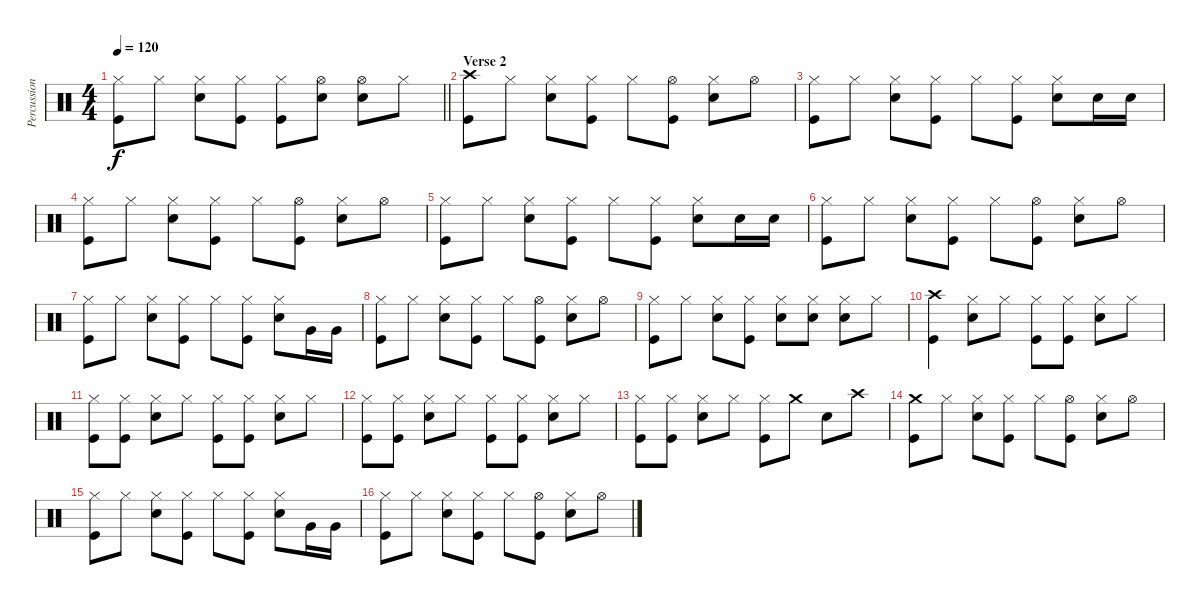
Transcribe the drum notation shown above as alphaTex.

\track ("Percussion" "Percussion") {instrument percussion}
\staff {score}
\articulation defaults
\ts (4 4)
\tempo 120
\clef neutral
\barLineRight lightlight
\ks c
("Kick (hit)" "Hi-Hat (closed)").8{dy f} "Hi-Hat (closed)".8 ("Hi-Hat (closed)" "Snare (hit) 2").8 ("Kick (hit)" "Hi-Hat (closed)").8 ("Kick (hit)" "Hi-Hat (closed)").8 ("Hi-Hat (open)" "Snare (hit) 2").8 ("Hi-Hat (open)" "Snare (hit) 2").8 "Hi-Hat (closed)".8 |
\section ("" "Verse 2")
("Kick (hit)" "Crash high (hit)").8 "Hi-Hat (closed)".8 ("Hi-Hat (closed)" "Snare (hit) 2").8 ("Kick (hit)" "Hi-Hat (closed)").8 "Hi-Hat (closed)".8 ("Kick (hit)" "Hi-Hat (open)").8 ("Hi-Hat (closed)" "Snare (hit) 2").8 "Hi-Hat (open)".8 |
("Kick (hit)" "Hi-Hat (closed)").8 "Hi-Hat (closed)".8 ("Hi-Hat (closed)" "Snare (hit) 2").8 ("Kick (hit)" "Hi-Hat (closed)").8 "Hi-Hat (closed)".8 ("Kick (hit)" "Hi-Hat (closed)").8 ("Hi-Hat (closed)" "Snare (hit) 2").8 "Snare (hit) 2".16 "Snare (hit) 2".16 |
("Kick (hit)" "Hi-Hat (closed)").8 "Hi-Hat (closed)".8 ("Hi-Hat (closed)" "Snare (hit) 2").8 ("Kick (hit)" "Hi-Hat (closed)").8 "Hi-Hat (closed)".8 ("Kick (hit)" "Hi-Hat (open)").8 ("Hi-Hat (closed)" "Snare (hit) 2").8 "Hi-Hat (open)".8 |
("Kick (hit)" "Hi-Hat (closed)").8 "Hi-Hat (closed)".8 ("Hi-Hat (closed)" "Snare (hit) 2").8 ("Kick (hit)" "Hi-Hat (closed)").8 "Hi-Hat (closed)".8 ("Kick (hit)" "Hi-Hat (closed)").8 ("Hi-Hat (closed)" "Snare (hit) 2").8 "Snare (hit) 2".16 "Snare (hit) 2".16 |
("Kick (hit)" "Hi-Hat (closed)").8 "Hi-Hat (closed)".8 ("Hi-Hat (closed)" "Snare (hit) 2").8 ("Kick (hit)" "Hi-Hat (closed)").8 "Hi-Hat (closed)".8 ("Kick (hit)" "Hi-Hat (open)").8 ("Hi-Hat (closed)" "Snare (hit) 2").8 "Hi-Hat (open)".8 |
("Kick (hit)" "Hi-Hat (closed)").8 "Hi-Hat (closed)".8 ("Hi-Hat (closed)" "Snare (hit) 2").8 ("Kick (hit)" "Hi-Hat (closed)").8 "Hi-Hat (closed)".8 ("Kick (hit)" "Hi-Hat (closed)").8 ("Hi-Hat (closed)" "Snare (hit) 2").8 "Very Low Tom (hit)".16 "Very Low Tom (hit)".16 |
("Kick (hit)" "Hi-Hat (closed)").8 "Hi-Hat (closed)".8 ("Hi-Hat (closed)" "Snare (hit) 2").8 ("Kick (hit)" "Hi-Hat (closed)").8 "Hi-Hat (closed)".8 ("Kick (hit)" "Hi-Hat (open)").8 ("Hi-Hat (closed)" "Snare (hit) 2").8 "Hi-Hat (open)".8 |
("Kick (hit)" "Hi-Hat (closed)").8 "Hi-Hat (closed)".8 ("Hi-Hat (closed)" "Snare (hit) 2").8 ("Kick (hit)" "Hi-Hat (closed)").8 ("Hi-Hat (closed)" "Snare (hit) 2").8 ("Hi-Hat (closed)" "Snare (hit) 2").8 ("Hi-Hat (closed)" "Snare (hit) 2").8 "Hi-Hat (closed)".8 |
("Kick (hit)" "Crash high (hit)").4 ("Hi-Hat (closed)" "Snare (hit) 2").8 "Hi-Hat (closed)".8 ("Kick (hit)" "Hi-Hat (closed)").8 ("Kick (hit)" "Hi-Hat (closed)").8 ("Hi-Hat (closed)" "Snare (hit) 2").8 "Hi-Hat (closed)".8 |
("Kick (hit)" "Hi-Hat (closed)").8 ("Kick (hit)" "Hi-Hat (closed)").8 ("Hi-Hat (closed)" "Snare (hit) 2").8 "Hi-Hat (closed)".8 ("Kick (hit)" "Hi-Hat (closed)").8 ("Kick (hit)" "Hi-Hat (closed)").8 ("Hi-Hat (closed)" "Snare (hit) 2").8 "Hi-Hat (closed)".8 |
("Kick (hit)" "Hi-Hat (closed)").8 ("Kick (hit)" "Hi-Hat (closed)").8 ("Hi-Hat (closed)" "Snare (hit) 2").8 "Hi-Hat (closed)".8 ("Kick (hit)" "Hi-Hat (closed)").8 ("Kick (hit)" "Hi-Hat (closed)").8 ("Hi-Hat (closed)" "Snare (hit) 2").8 "Hi-Hat (closed)".8 |
("Kick (hit)" "Hi-Hat (closed)").8 ("Kick (hit)" "Hi-Hat (closed)").8 ("Hi-Hat (closed)" "Snare (hit) 2").8 "Hi-Hat (closed)".8 ("Kick (hit)" "Hi-Hat (closed)").8 "Crash medium (hit)".8 "Snare (hit) 2".8 "Crash high (hit)".8 |
("Kick (hit)" "Crash medium (hit)").8 "Hi-Hat (closed)".8 ("Hi-Hat (closed)" "Snare (hit) 2").8 ("Kick (hit)" "Hi-Hat (closed)").8 "Hi-Hat (closed)".8 ("Kick (hit)" "Hi-Hat (open)").8 ("Hi-Hat (closed)" "Snare (hit) 2").8 "Hi-Hat (open)".8 |
("Kick (hit)" "Hi-Hat (closed)").8 "Hi-Hat (closed)".8 ("Hi-Hat (closed)" "Snare (hit) 2").8 ("Kick (hit)" "Hi-Hat (closed)").8 "Hi-Hat (closed)".8 ("Kick (hit)" "Hi-Hat (closed)").8 ("Hi-Hat (closed)" "Snare (hit) 2").8 "Very Low Tom (hit)".16 "Very Low Tom (hit)".16 |
("Kick (hit)" "Hi-Hat (closed)").8 "Hi-Hat (closed)".8 ("Hi-Hat (closed)" "Snare (hit) 2").8 ("Kick (hit)" "Hi-Hat (closed)").8 "Hi-Hat (closed)".8 ("Kick (hit)" "Hi-Hat (open)").8 ("Hi-Hat (closed)" "Snare (hit) 2").8 "Hi-Hat (open)".8
